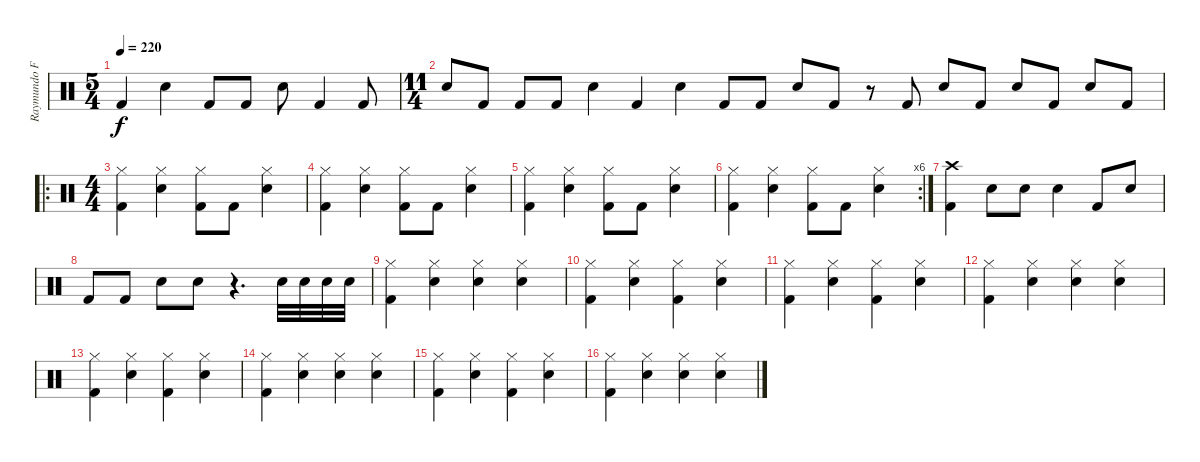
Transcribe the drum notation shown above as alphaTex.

\track ("Raymundo Fajaro" "Raymundo F") {instrument percussion}
\staff {score}
\articulation defaults
\ts (5 4)
\tempo 220
\clef neutral
\ks c "Kick (hit) 2".4{dy f} "Electric Snare (hit)".4 "Kick (hit) 2".8 "Kick (hit) 2".8 "Electric Snare (hit)".8 "Kick (hit) 2".4 "Kick (hit) 2".8
|
\ts (11 4)
"Electric Snare (hit)".8 "Kick (hit) 2".8 "Kick (hit) 2".8 "Kick (hit) 2".8 "Electric Snare (hit)".4 "Kick (hit) 2".4 "Electric Snare (hit)".4 "Kick (hit) 2".8 "Kick (hit) 2".8 "Electric Snare (hit)".8 "Kick (hit) 2".8 r.8 "Kick (hit) 2".8 "Electric Snare (hit)".8 "Kick (hit) 2".8 "Electric Snare (hit)".8 "Kick (hit) 2".8 "Electric Snare (hit)".8 "Kick (hit) 2".8 |
\ro
\ts (4 4)
("Kick (hit) 2" "Hi-Hat (closed)").4 ("Electric Snare (hit)" "Hi-Hat (closed)").4 ("Kick (hit) 2" "Hi-Hat (closed)").8 "Kick (hit) 2".8 ("Electric Snare (hit)" "Hi-Hat (closed)").4 |
("Kick (hit) 2" "Hi-Hat (closed)").4 ("Electric Snare (hit)" "Hi-Hat (closed)").4 ("Kick (hit) 2" "Hi-Hat (closed)").8 "Kick (hit) 2".8 ("Electric Snare (hit)" "Hi-Hat (closed)").4 |
("Kick (hit) 2" "Hi-Hat (closed)").4 ("Electric Snare (hit)" "Hi-Hat (closed)").4 ("Kick (hit) 2" "Hi-Hat (closed)").8 "Kick (hit) 2".8 ("Electric Snare (hit)" "Hi-Hat (closed)").4 |
\rc 6
("Kick (hit) 2" "Hi-Hat (closed)").4 ("Electric Snare (hit)" "Hi-Hat (closed)").4 ("Kick (hit) 2" "Hi-Hat (closed)").8 "Kick (hit) 2".8 ("Electric Snare (hit)" "Hi-Hat (closed)").4 |
("Kick (hit) 2" "Crash high (hit)").4 "Electric Snare (hit)".8 "Electric Snare (hit)".8 "Electric Snare (hit)".4 "Kick (hit) 2".8 "Electric Snare (hit)".8 |
"Kick (hit) 2".8 "Kick (hit) 2".8 "Electric Snare (hit)".8 "Electric Snare (hit)".8 r.4{d} "Electric Snare (hit)".32 "Electric Snare (hit)".32 "Electric Snare (hit)".32 "Electric Snare (hit)".32 |
("Kick (hit) 2" "Hi-Hat (closed)").4 ("Electric Snare (hit)" "Hi-Hat (closed)").4 ("Electric Snare (hit)" "Hi-Hat (closed)").4 ("Electric Snare (hit)" "Hi-Hat (closed)").4 |
("Kick (hit) 2" "Hi-Hat (closed)").4 ("Electric Snare (hit)" "Hi-Hat (closed)").4 ("Kick (hit) 2" "Hi-Hat (closed)").4 ("Electric Snare (hit)" "Hi-Hat (closed)").4 |
("Kick (hit) 2" "Hi-Hat (closed)").4 ("Electric Snare (hit)" "Hi-Hat (closed)").4 ("Kick (hit) 2" "Hi-Hat (closed)").4 ("Electric Snare (hit)" "Hi-Hat (closed)").4 |
("Kick (hit) 2" "Hi-Hat (closed)").4 ("Electric Snare (hit)" "Hi-Hat (closed)").4 ("Electric Snare (hit)" "Hi-Hat (closed)").4 ("Electric Snare (hit)" "Hi-Hat (closed)").4 |
("Kick (hit) 2" "Hi-Hat (closed)").4 ("Electric Snare (hit)" "Hi-Hat (closed)").4 ("Kick (hit) 2" "Hi-Hat (closed)").4 ("Electric Snare (hit)" "Hi-Hat (closed)").4 |
("Kick (hit) 2" "Hi-Hat (closed)").4 ("Electric Snare (hit)" "Hi-Hat (closed)").4 ("Electric Snare (hit)" "Hi-Hat (closed)").4 ("Electric Snare (hit)" "Hi-Hat (closed)").4 |
("Kick (hit) 2" "Hi-Hat (closed)").4 ("Electric Snare (hit)" "Hi-Hat (closed)").4 ("Kick (hit) 2" "Hi-Hat (closed)").4 ("Electric Snare (hit)" "Hi-Hat (closed)").4 |
("Kick (hit) 2" "Hi-Hat (closed)").4 ("Electric Snare (hit)" "Hi-Hat (closed)").4 ("Electric Snare (hit)" "Hi-Hat (closed)").4 ("Electric Snare (hit)" "Hi-Hat (closed)").4
